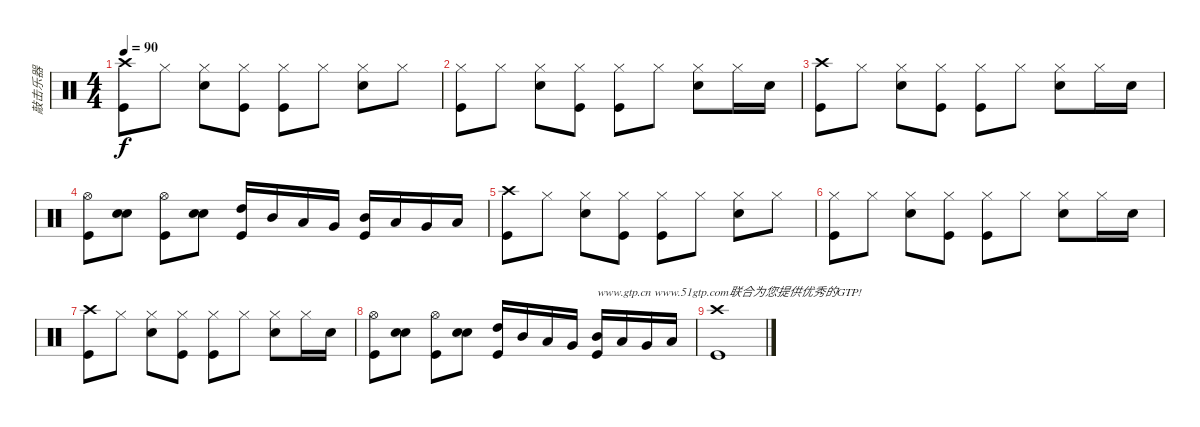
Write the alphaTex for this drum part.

\track ("敲击乐器" "敲击乐器") {instrument percussion}
\staff {score}
\articulation defaults
\ts (4 4)
\tempo 90
\clef neutral
\ks c
("Kick (hit)" "Crash high (hit)").8{dy f} "Hi-Hat (closed)".8 ("Snare (hit) 2" "Hi-Hat (closed)").8 ("Kick (hit)" "Hi-Hat (closed)").8 ("Kick (hit)" "Hi-Hat (closed)").8 "Hi-Hat (closed)".8 ("Snare (hit) 2" "Hi-Hat (closed)").8 "Hi-Hat (closed)".8 |
("Kick (hit)" "Hi-Hat (closed)").8 "Hi-Hat (closed)".8 ("Snare (hit) 2" "Hi-Hat (closed)").8 ("Kick (hit)" "Hi-Hat (closed)").8 ("Kick (hit)" "Hi-Hat (closed)").8 "Hi-Hat (closed)".8 ("Snare (hit) 2" "Hi-Hat (closed)").8 "Hi-Hat (closed)".16 "Snare (hit) 2".16 |
("Kick (hit)" "Crash high (hit)").8 "Hi-Hat (closed)".8 ("Snare (hit) 2" "Hi-Hat (closed)").8 ("Kick (hit)" "Hi-Hat (closed)").8 ("Kick (hit)" "Hi-Hat (closed)").8 "Hi-Hat (closed)".8 ("Snare (hit) 2" "Hi-Hat (closed)").8 "Hi-Hat (closed)".16 "Snare (hit) 2".16 |
("Hi-Hat (open)" "Kick (hit)").8 ("Snare (hit) 2" "Snare (hit) 2").8 ("Kick (hit)" "Hi-Hat (open)").8 ("Snare (hit) 2" "Snare (hit) 2").8 ("Kick (hit)" "High Tom (hit)").16 "Mid Tom (hit)".16 "Low Tom (hit)".16 "Very Low Tom (hit)".16 ("Kick (hit)" "Mid Tom (hit)").16 "Low Tom (hit)".16 "Very Low Tom (hit)".16 "Low Floor Tom (hit)".16 |
("Kick (hit)" "Crash high (hit)").8 "Hi-Hat (closed)".8 ("Snare (hit) 2" "Hi-Hat (closed)").8 ("Kick (hit)" "Hi-Hat (closed)").8 ("Kick (hit)" "Hi-Hat (closed)").8 "Hi-Hat (closed)".8 ("Snare (hit) 2" "Hi-Hat (closed)").8 "Hi-Hat (closed)".8 |
("Kick (hit)" "Hi-Hat (closed)").8 "Hi-Hat (closed)".8 ("Snare (hit) 2" "Hi-Hat (closed)").8 ("Kick (hit)" "Hi-Hat (closed)").8 ("Kick (hit)" "Hi-Hat (closed)").8 "Hi-Hat (closed)".8 ("Snare (hit) 2" "Hi-Hat (closed)").8 "Hi-Hat (closed)".16 "Snare (hit) 2".16 |
("Kick (hit)" "Crash high (hit)").8 "Hi-Hat (closed)".8 ("Snare (hit) 2" "Hi-Hat (closed)").8 ("Kick (hit)" "Hi-Hat (closed)").8 ("Kick (hit)" "Hi-Hat (closed)").8 "Hi-Hat (closed)".8 ("Snare (hit) 2" "Hi-Hat (closed)").8 "Hi-Hat (closed)".16 "Snare (hit) 2".16 |
("Hi-Hat (open)" "Kick (hit)").8 ("Snare (hit) 2" "Snare (hit) 2").8 ("Kick (hit)" "Hi-Hat (open)").8 ("Snare (hit) 2" "Snare (hit) 2").8 ("Kick (hit)" "High Tom (hit)").16 "Mid Tom (hit)".16 "Low Tom (hit)".16 "Very Low Tom (hit)".16 ("Kick (hit)" "Mid Tom (hit)").16{txt "www.gtp.cn www.51gtp.com联合为您提供优秀的GTP!"} "Low Tom (hit)".16 "Very Low Tom (hit)".16 "Low Floor Tom (hit)".16 |
("Kick (hit)" "Crash high (hit)").1
